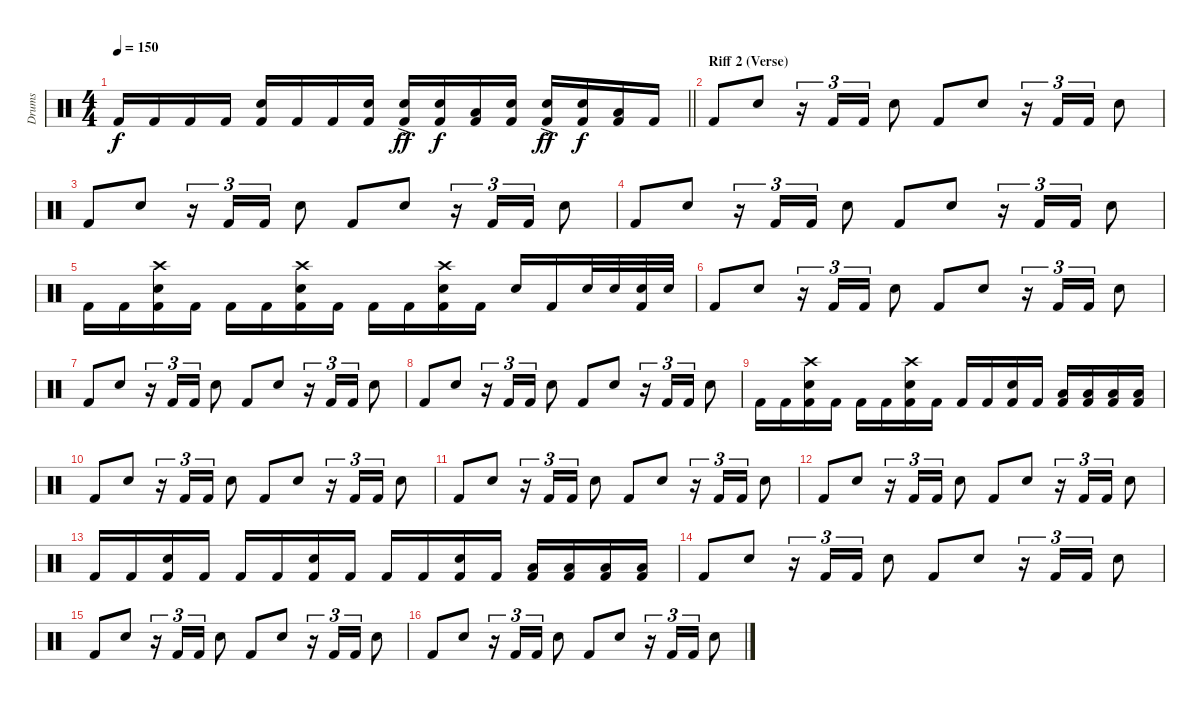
\track ("Drums" "Drums") {instrument percussion}
\staff {score}
\articulation defaults
\ts (4 4)
\tempo 150
\clef neutral
\barLineRight lightlight
\ks c "Kick (hit) 2".16{dy f} "Kick (hit) 2".16 "Kick (hit) 2".16 "Kick (hit) 2".16
("Snare (hit) 2" "Kick (hit) 2").16 "Kick (hit) 2".16 "Kick (hit) 2".16 ("Snare (hit) 2" "Kick (hit) 2").16 ("Snare (hit) 2"{ac} "Kick (hit) 2").16{dy ff} ("Snare (hit) 2" "Kick (hit) 2").16{dy f} ("Low Tom (hit)" "Kick (hit) 2").16 ("Snare (hit) 2" "Kick (hit) 2").16 ("Snare (hit) 2"{ac} "Kick (hit) 2").16{dy ff} ("Snare (hit) 2" "Kick (hit) 2").16{dy f} ("Low Tom (hit)" "Kick (hit) 2").16 "Kick (hit) 2".16 |
\section ("" "Riff 2 (Verse)")
"Kick (hit) 2".8 "Snare (hit) 2".8 r.16{tu (3 2)} "Kick (hit) 2".16{tu (3 2)} "Kick (hit) 2".16{tu (3 2)} "Snare (hit) 2".8 "Kick (hit) 2".8 "Snare (hit) 2".8 r.16{tu (3 2)} "Kick (hit) 2".16{tu (3 2)} "Kick (hit) 2".16{tu (3 2)} "Snare (hit) 2".8 |
"Kick (hit) 2".8 "Snare (hit) 2".8 r.16{tu (3 2)} "Kick (hit) 2".16{tu (3 2)} "Kick (hit) 2".16{tu (3 2)} "Snare (hit) 2".8 "Kick (hit) 2".8 "Snare (hit) 2".8 r.16{tu (3 2)} "Kick (hit) 2".16{tu (3 2)} "Kick (hit) 2".16{tu (3 2)} "Snare (hit) 2".8 |
"Kick (hit) 2".8 "Snare (hit) 2".8 r.16{tu (3 2)} "Kick (hit) 2".16{tu (3 2)} "Kick (hit) 2".16{tu (3 2)} "Snare (hit) 2".8 "Kick (hit) 2".8 "Snare (hit) 2".8 r.16{tu (3 2)} "Kick (hit) 2".16{tu (3 2)} "Kick (hit) 2".16{tu (3 2)} "Snare (hit) 2".8 |
"Kick (hit) 2".16 "Kick (hit) 2".16 ("Crash high (hit)" "Snare (hit) 2" "Kick (hit) 2").16 "Kick (hit) 2".16 "Kick (hit) 2".16 "Kick (hit) 2".16 ("Crash high (hit)" "Snare (hit) 2" "Kick (hit) 2").16 "Kick (hit) 2".16 "Kick (hit) 2".16 "Kick (hit) 2".16 ("Crash high (hit)" "Snare (hit) 2" "Kick (hit) 2").16 "Kick (hit) 2".16 "Snare (hit) 2".16 "Kick (hit) 2".16 "Snare (hit) 2".32 "Snare (hit) 2".32 ("Snare (hit) 2" "Kick (hit) 2").32 "Snare (hit) 2".32 |
"Kick (hit) 2".8 "Snare (hit) 2".8 r.16{tu (3 2)} "Kick (hit) 2".16{tu (3 2)} "Kick (hit) 2".16{tu (3 2)} "Snare (hit) 2".8 "Kick (hit) 2".8 "Snare (hit) 2".8 r.16{tu (3 2)} "Kick (hit) 2".16{tu (3 2)} "Kick (hit) 2".16{tu (3 2)} "Snare (hit) 2".8 |
"Kick (hit) 2".8 "Snare (hit) 2".8 r.16{tu (3 2)} "Kick (hit) 2".16{tu (3 2)} "Kick (hit) 2".16{tu (3 2)} "Snare (hit) 2".8 "Kick (hit) 2".8 "Snare (hit) 2".8 r.16{tu (3 2)} "Kick (hit) 2".16{tu (3 2)} "Kick (hit) 2".16{tu (3 2)} "Snare (hit) 2".8 |
"Kick (hit) 2".8 "Snare (hit) 2".8 r.16{tu (3 2)} "Kick (hit) 2".16{tu (3 2)} "Kick (hit) 2".16{tu (3 2)} "Snare (hit) 2".8 "Kick (hit) 2".8 "Snare (hit) 2".8 r.16{tu (3 2)} "Kick (hit) 2".16{tu (3 2)} "Kick (hit) 2".16{tu (3 2)} "Snare (hit) 2".8 |
"Kick (hit) 2".16 "Kick (hit) 2".16 ("Crash high (hit)" "Snare (hit) 2" "Kick (hit) 2").16 "Kick (hit) 2".16 "Kick (hit) 2".16 "Kick (hit) 2".16 ("Crash high (hit)" "Snare (hit) 2" "Kick (hit) 2").16 "Kick (hit) 2".16 "Kick (hit) 2".16 "Kick (hit) 2".16 ("Snare (hit) 2" "Kick (hit) 2").16 "Kick (hit) 2".16 ("Low Tom (hit)" "Kick (hit) 2").16 ("Low Tom (hit)" "Kick (hit) 2").16 ("Low Tom (hit)" "Kick (hit) 2").16 ("Low Tom (hit)" "Kick (hit) 2").16 |
"Kick (hit) 2".8 "Snare (hit) 2".8 r.16{tu (3 2)} "Kick (hit) 2".16{tu (3 2)} "Kick (hit) 2".16{tu (3 2)} "Snare (hit) 2".8 "Kick (hit) 2".8 "Snare (hit) 2".8 r.16{tu (3 2)} "Kick (hit) 2".16{tu (3 2)} "Kick (hit) 2".16{tu (3 2)} "Snare (hit) 2".8 |
"Kick (hit) 2".8 "Snare (hit) 2".8 r.16{tu (3 2)} "Kick (hit) 2".16{tu (3 2)} "Kick (hit) 2".16{tu (3 2)} "Snare (hit) 2".8 "Kick (hit) 2".8 "Snare (hit) 2".8 r.16{tu (3 2)} "Kick (hit) 2".16{tu (3 2)} "Kick (hit) 2".16{tu (3 2)} "Snare (hit) 2".8 |
"Kick (hit) 2".8 "Snare (hit) 2".8 r.16{tu (3 2)} "Kick (hit) 2".16{tu (3 2)} "Kick (hit) 2".16{tu (3 2)} "Snare (hit) 2".8 "Kick (hit) 2".8 "Snare (hit) 2".8 r.16{tu (3 2)} "Kick (hit) 2".16{tu (3 2)} "Kick (hit) 2".16{tu (3 2)} "Snare (hit) 2".8 |
"Kick (hit) 2".16 "Kick (hit) 2".16 ("Snare (hit) 2" "Kick (hit) 2").16 "Kick (hit) 2".16 "Kick (hit) 2".16 "Kick (hit) 2".16 ("Snare (hit) 2" "Kick (hit) 2").16 "Kick (hit) 2".16 "Kick (hit) 2".16 "Kick (hit) 2".16 ("Snare (hit) 2" "Kick (hit) 2").16 "Kick (hit) 2".16 ("Low Tom (hit)" "Kick (hit) 2").16 ("Low Tom (hit)" "Kick (hit) 2").16 ("Low Tom (hit)" "Kick (hit) 2").16 ("Low Tom (hit)" "Kick (hit) 2").16 |
"Kick (hit) 2".8 "Snare (hit) 2".8 r.16{tu (3 2)} "Kick (hit) 2".16{tu (3 2)} "Kick (hit) 2".16{tu (3 2)} "Snare (hit) 2".8 "Kick (hit) 2".8 "Snare (hit) 2".8 r.16{tu (3 2)} "Kick (hit) 2".16{tu (3 2)} "Kick (hit) 2".16{tu (3 2)} "Snare (hit) 2".8 |
"Kick (hit) 2".8 "Snare (hit) 2".8 r.16{tu (3 2)} "Kick (hit) 2".16{tu (3 2)} "Kick (hit) 2".16{tu (3 2)} "Snare (hit) 2".8 "Kick (hit) 2".8 "Snare (hit) 2".8 r.16{tu (3 2)} "Kick (hit) 2".16{tu (3 2)} "Kick (hit) 2".16{tu (3 2)} "Snare (hit) 2".8 |
"Kick (hit) 2".8 "Snare (hit) 2".8 r.16{tu (3 2)} "Kick (hit) 2".16{tu (3 2)} "Kick (hit) 2".16{tu (3 2)} "Snare (hit) 2".8 "Kick (hit) 2".8 "Snare (hit) 2".8 r.16{tu (3 2)} "Kick (hit) 2".16{tu (3 2)} "Kick (hit) 2".16{tu (3 2)} "Snare (hit) 2".8
